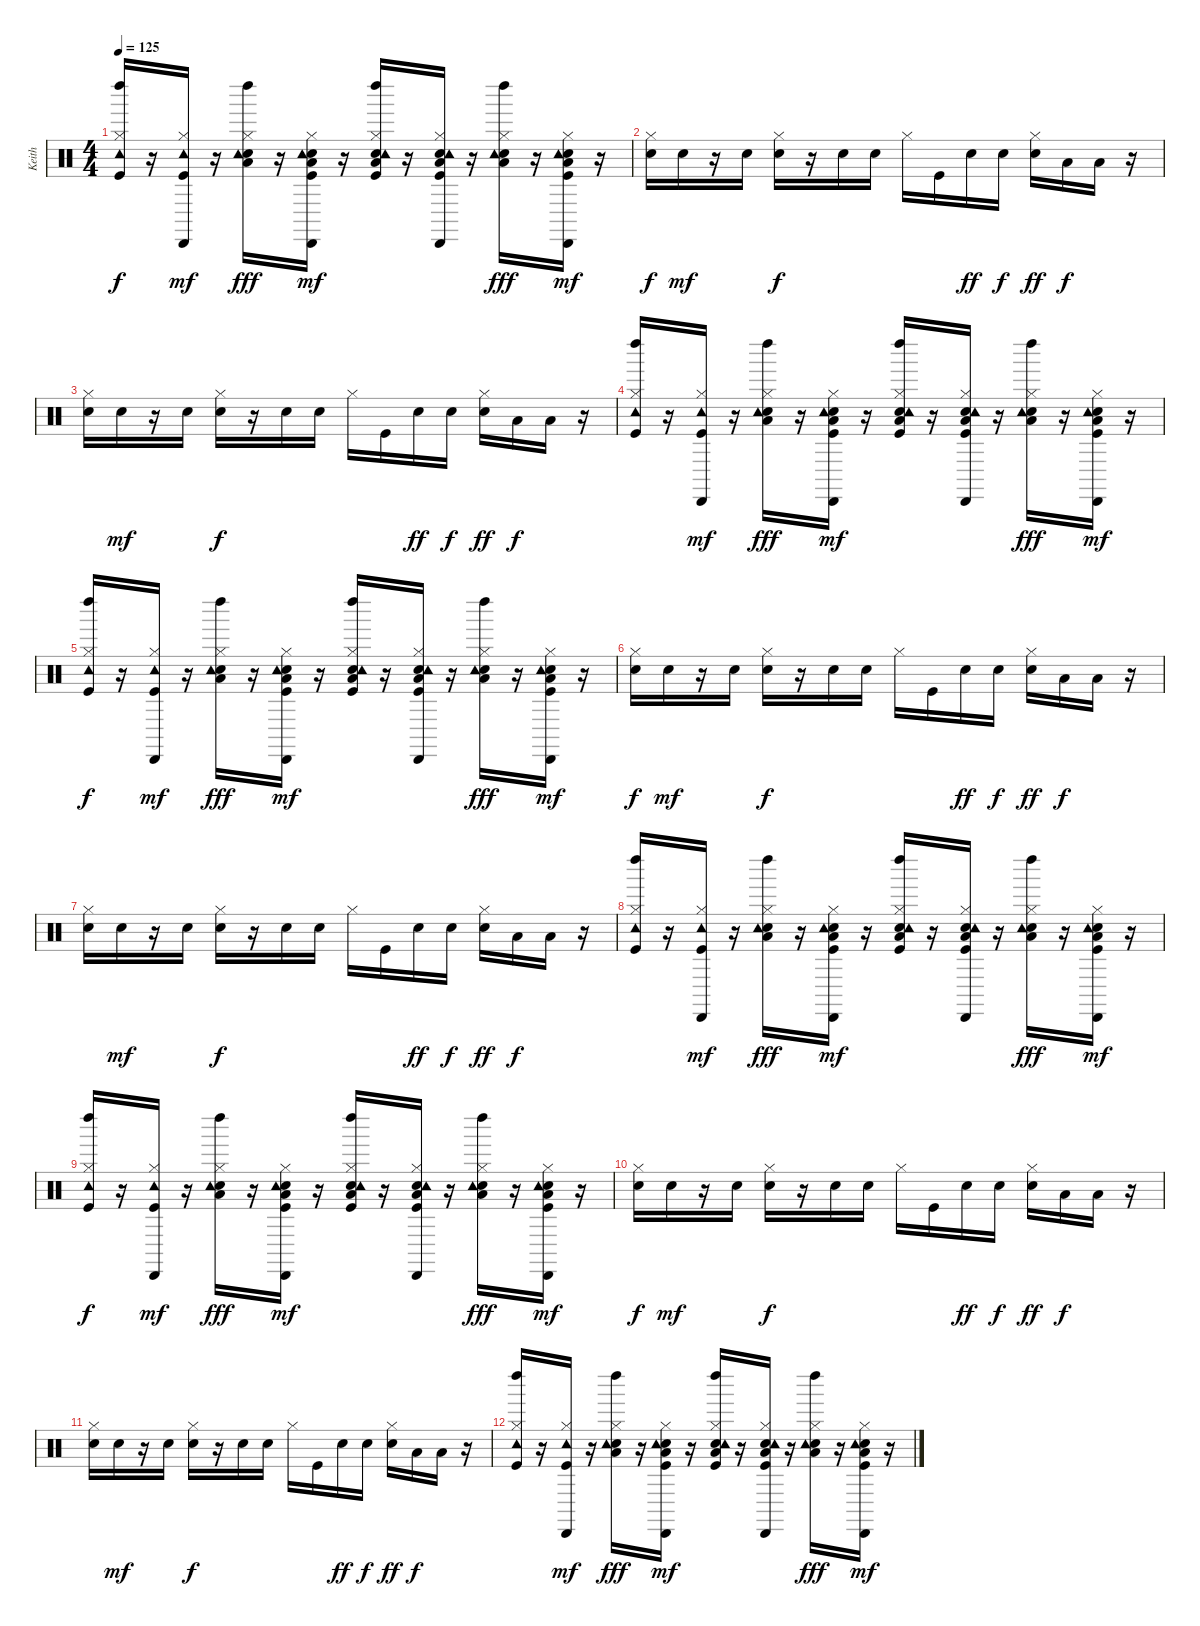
\track ("Keith" "Keith") {instrument percussion}
\staff {score}
\articulation defaults
\ts (4 4)
\tempo 125
\clef neutral
\ks c
("Kick (hit)" "Hi-Hat (closed)" "Tambourine (hit)" "Left Maraca (hit)").16{dy f} r.16 ("Kick (hit)" "Hi-Hat (closed)" "Tambourine (hit)" "Cabasa (hit)").16{dy mf} r.16 ("Snare (hit) 2" "Hi-Hat (closed)" "Low Floor Tom (hit)" "Tambourine (hit)" "Left Maraca (hit)").16{dy fff} r.16 ("Kick (hit)" "Snare (hit) 2" "Hi-Hat (closed)" "Low Floor Tom (hit)" "Tambourine (hit)" "Cabasa (hit)").16{dy mf} r.16 ("Kick (hit)" "Snare (hit) 2" "Hi-Hat (closed)" "Low Floor Tom (hit)" "Tambourine (hit)" "Left Maraca (hit)").16 r.16 ("Kick (hit)" "Snare (hit) 2" "Hi-Hat (closed)" "Low Floor Tom (hit)" "Tambourine (hit)" "Cabasa (hit)").16 r.16 ("Snare (hit) 2" "Hi-Hat (closed)" "Low Floor Tom (hit)" "Tambourine (hit)" "Left Maraca (hit)").16{dy fff} r.16 ("Kick (hit)" "Snare (hit) 2" "Hi-Hat (closed)" "Low Floor Tom (hit)" "Tambourine (hit)" "Cabasa (hit)").16{dy mf} r.16 |
("Snare (hit) 2" "Hi-Hat (closed)").16{dy f} "Snare (hit) 2".16{dy mf} r.16 "Snare (hit) 2".16 ("Snare (hit) 2" "Hi-Hat (closed)").16{dy f} r.16 "Snare (hit) 2".16 "Snare (hit) 2".16 "Hi-Hat (closed)".16 "Kick (hit)".16 "Snare (hit) 2".16{dy ff} "Snare (hit) 2".16{dy f} ("Snare (hit) 2" "Hi-Hat (closed)").16{dy ff} "Low Tom (hit)".16{dy f} "Low Floor Tom (hit)".16 r.16 |
("Snare (hit) 2" "Hi-Hat (closed)").16 "Snare (hit) 2".16{dy mf} r.16 "Snare (hit) 2".16 ("Snare (hit) 2" "Hi-Hat (closed)").16{dy f} r.16 "Snare (hit) 2".16 "Snare (hit) 2".16 "Hi-Hat (closed)".16 "Kick (hit)".16 "Snare (hit) 2".16{dy ff} "Snare (hit) 2".16{dy f} ("Snare (hit) 2" "Hi-Hat (closed)").16{dy ff} "Low Tom (hit)".16{dy f} "Low Floor Tom (hit)".16 r.16 |
("Kick (hit)" "Hi-Hat (closed)" "Tambourine (hit)" "Left Maraca (hit)").16 r.16 ("Kick (hit)" "Hi-Hat (closed)" "Tambourine (hit)" "Cabasa (hit)").16{dy mf} r.16 ("Snare (hit) 2" "Hi-Hat (closed)" "Low Floor Tom (hit)" "Tambourine (hit)" "Left Maraca (hit)").16{dy fff} r.16 ("Kick (hit)" "Snare (hit) 2" "Hi-Hat (closed)" "Low Floor Tom (hit)" "Tambourine (hit)" "Cabasa (hit)").16{dy mf} r.16 ("Kick (hit)" "Snare (hit) 2" "Hi-Hat (closed)" "Low Floor Tom (hit)" "Tambourine (hit)" "Left Maraca (hit)").16 r.16 ("Kick (hit)" "Snare (hit) 2" "Hi-Hat (closed)" "Low Floor Tom (hit)" "Tambourine (hit)" "Cabasa (hit)").16 r.16 ("Snare (hit) 2" "Hi-Hat (closed)" "Low Floor Tom (hit)" "Tambourine (hit)" "Left Maraca (hit)").16{dy fff} r.16 ("Kick (hit)" "Snare (hit) 2" "Hi-Hat (closed)" "Low Floor Tom (hit)" "Tambourine (hit)" "Cabasa (hit)").16{dy mf} r.16 |
("Kick (hit)" "Hi-Hat (closed)" "Tambourine (hit)" "Left Maraca (hit)").16{dy f} r.16 ("Kick (hit)" "Hi-Hat (closed)" "Tambourine (hit)" "Cabasa (hit)").16{dy mf} r.16 ("Snare (hit) 2" "Hi-Hat (closed)" "Low Floor Tom (hit)" "Tambourine (hit)" "Left Maraca (hit)").16{dy fff} r.16 ("Kick (hit)" "Snare (hit) 2" "Hi-Hat (closed)" "Low Floor Tom (hit)" "Tambourine (hit)" "Cabasa (hit)").16{dy mf} r.16 ("Kick (hit)" "Snare (hit) 2" "Hi-Hat (closed)" "Low Floor Tom (hit)" "Tambourine (hit)" "Left Maraca (hit)").16 r.16 ("Kick (hit)" "Snare (hit) 2" "Hi-Hat (closed)" "Low Floor Tom (hit)" "Tambourine (hit)" "Cabasa (hit)").16 r.16 ("Snare (hit) 2" "Hi-Hat (closed)" "Low Floor Tom (hit)" "Tambourine (hit)" "Left Maraca (hit)").16{dy fff} r.16 ("Kick (hit)" "Snare (hit) 2" "Hi-Hat (closed)" "Low Floor Tom (hit)" "Tambourine (hit)" "Cabasa (hit)").16{dy mf} r.16 |
("Snare (hit) 2" "Hi-Hat (closed)").16{dy f} "Snare (hit) 2".16{dy mf} r.16 "Snare (hit) 2".16 ("Snare (hit) 2" "Hi-Hat (closed)").16{dy f} r.16 "Snare (hit) 2".16 "Snare (hit) 2".16 "Hi-Hat (closed)".16 "Kick (hit)".16 "Snare (hit) 2".16{dy ff} "Snare (hit) 2".16{dy f} ("Snare (hit) 2" "Hi-Hat (closed)").16{dy ff} "Low Tom (hit)".16{dy f} "Low Floor Tom (hit)".16 r.16 |
("Snare (hit) 2" "Hi-Hat (closed)").16 "Snare (hit) 2".16{dy mf} r.16 "Snare (hit) 2".16 ("Snare (hit) 2" "Hi-Hat (closed)").16{dy f} r.16 "Snare (hit) 2".16 "Snare (hit) 2".16 "Hi-Hat (closed)".16 "Kick (hit)".16 "Snare (hit) 2".16{dy ff} "Snare (hit) 2".16{dy f} ("Snare (hit) 2" "Hi-Hat (closed)").16{dy ff} "Low Tom (hit)".16{dy f} "Low Floor Tom (hit)".16 r.16 |
("Kick (hit)" "Hi-Hat (closed)" "Tambourine (hit)" "Left Maraca (hit)").16 r.16 ("Kick (hit)" "Hi-Hat (closed)" "Tambourine (hit)" "Cabasa (hit)").16{dy mf} r.16 ("Snare (hit) 2" "Hi-Hat (closed)" "Low Floor Tom (hit)" "Tambourine (hit)" "Left Maraca (hit)").16{dy fff} r.16 ("Kick (hit)" "Snare (hit) 2" "Hi-Hat (closed)" "Low Floor Tom (hit)" "Tambourine (hit)" "Cabasa (hit)").16{dy mf} r.16 ("Kick (hit)" "Snare (hit) 2" "Hi-Hat (closed)" "Low Floor Tom (hit)" "Tambourine (hit)" "Left Maraca (hit)").16 r.16 ("Kick (hit)" "Snare (hit) 2" "Hi-Hat (closed)" "Low Floor Tom (hit)" "Tambourine (hit)" "Cabasa (hit)").16 r.16 ("Snare (hit) 2" "Hi-Hat (closed)" "Low Floor Tom (hit)" "Tambourine (hit)" "Left Maraca (hit)").16{dy fff} r.16 ("Kick (hit)" "Snare (hit) 2" "Hi-Hat (closed)" "Low Floor Tom (hit)" "Tambourine (hit)" "Cabasa (hit)").16{dy mf} r.16 |
("Kick (hit)" "Hi-Hat (closed)" "Tambourine (hit)" "Left Maraca (hit)").16{dy f} r.16 ("Kick (hit)" "Hi-Hat (closed)" "Tambourine (hit)" "Cabasa (hit)").16{dy mf volume 13} r.16 ("Snare (hit) 2" "Hi-Hat (closed)" "Low Floor Tom (hit)" "Tambourine (hit)" "Left Maraca (hit)").16{dy fff volume 12} r.16 ("Kick (hit)" "Snare (hit) 2" "Hi-Hat (closed)" "Low Floor Tom (hit)" "Tambourine (hit)" "Cabasa (hit)").16{dy mf volume 12} r.16 ("Kick (hit)" "Snare (hit) 2" "Hi-Hat (closed)" "Low Floor Tom (hit)" "Tambourine (hit)" "Left Maraca (hit)").16{volume 12} r.16 ("Kick (hit)" "Snare (hit) 2" "Hi-Hat (closed)" "Low Floor Tom (hit)" "Tambourine (hit)" "Cabasa (hit)").16{volume 11} r.16 ("Snare (hit) 2" "Hi-Hat (closed)" "Low Floor Tom (hit)" "Tambourine (hit)" "Left Maraca (hit)").16{dy fff volume 11} r.16 ("Kick (hit)" "Snare (hit) 2" "Hi-Hat (closed)" "Low Floor Tom (hit)" "Tambourine (hit)" "Cabasa (hit)").16{dy mf volume 10} r.16 |
("Snare (hit) 2" "Hi-Hat (closed)").16{dy f volume 10} "Snare (hit) 2".16{dy mf volume 10} r.16 "Snare (hit) 2".16{volume 9} ("Snare (hit) 2" "Hi-Hat (closed)").16{dy f volume 9} r.16 "Snare (hit) 2".16{volume 9} "Snare (hit) 2".16{volume 9} "Hi-Hat (closed)".16{volume 8} "Kick (hit)".16{volume 8} "Snare (hit) 2".16{dy ff volume 8} "Snare (hit) 2".16{dy f volume 8} ("Snare (hit) 2" "Hi-Hat (closed)").16{dy ff volume 8} "Low Tom (hit)".16{dy f volume 7} "Low Floor Tom (hit)".16{volume 7} r.16 |
("Snare (hit) 2" "Hi-Hat (closed)").16{volume 7} "Snare (hit) 2".16{dy mf volume 6} r.16 "Snare (hit) 2".16{volume 6} ("Snare (hit) 2" "Hi-Hat (closed)").16{dy f volume 6} r.16 "Snare (hit) 2".16{volume 6} "Snare (hit) 2".16{volume 5} "Hi-Hat (closed)".16{volume 5} "Kick (hit)".16{volume 5} "Snare (hit) 2".16{dy ff volume 5} "Snare (hit) 2".16{dy f volume 4} ("Snare (hit) 2" "Hi-Hat (closed)").16{dy ff volume 4} "Low Tom (hit)".16{dy f volume 4} "Low Floor Tom (hit)".16{volume 4} r.16 |
("Kick (hit)" "Hi-Hat (closed)" "Tambourine (hit)" "Left Maraca (hit)").16{volume 3} r.16 ("Kick (hit)" "Hi-Hat (closed)" "Tambourine (hit)" "Cabasa (hit)").16{dy mf volume 3} r.16 ("Snare (hit) 2" "Hi-Hat (closed)" "Low Floor Tom (hit)" "Tambourine (hit)" "Left Maraca (hit)").16{dy fff volume 2} r.16 ("Kick (hit)" "Snare (hit) 2" "Hi-Hat (closed)" "Low Floor Tom (hit)" "Tambourine (hit)" "Cabasa (hit)").16{dy mf volume 2} r.16 ("Kick (hit)" "Snare (hit) 2" "Hi-Hat (closed)" "Low Floor Tom (hit)" "Tambourine (hit)" "Left Maraca (hit)").16{volume 2} r.16 ("Kick (hit)" "Snare (hit) 2" "Hi-Hat (closed)" "Low Floor Tom (hit)" "Tambourine (hit)" "Cabasa (hit)").16{volume 1} r.16 ("Snare (hit) 2" "Hi-Hat (closed)" "Low Floor Tom (hit)" "Tambourine (hit)" "Left Maraca (hit)").16{dy fff volume 1} r.16 ("Kick (hit)" "Snare (hit) 2" "Hi-Hat (closed)" "Low Floor Tom (hit)" "Tambourine (hit)" "Cabasa (hit)").16{dy mf volume 0} r.16
